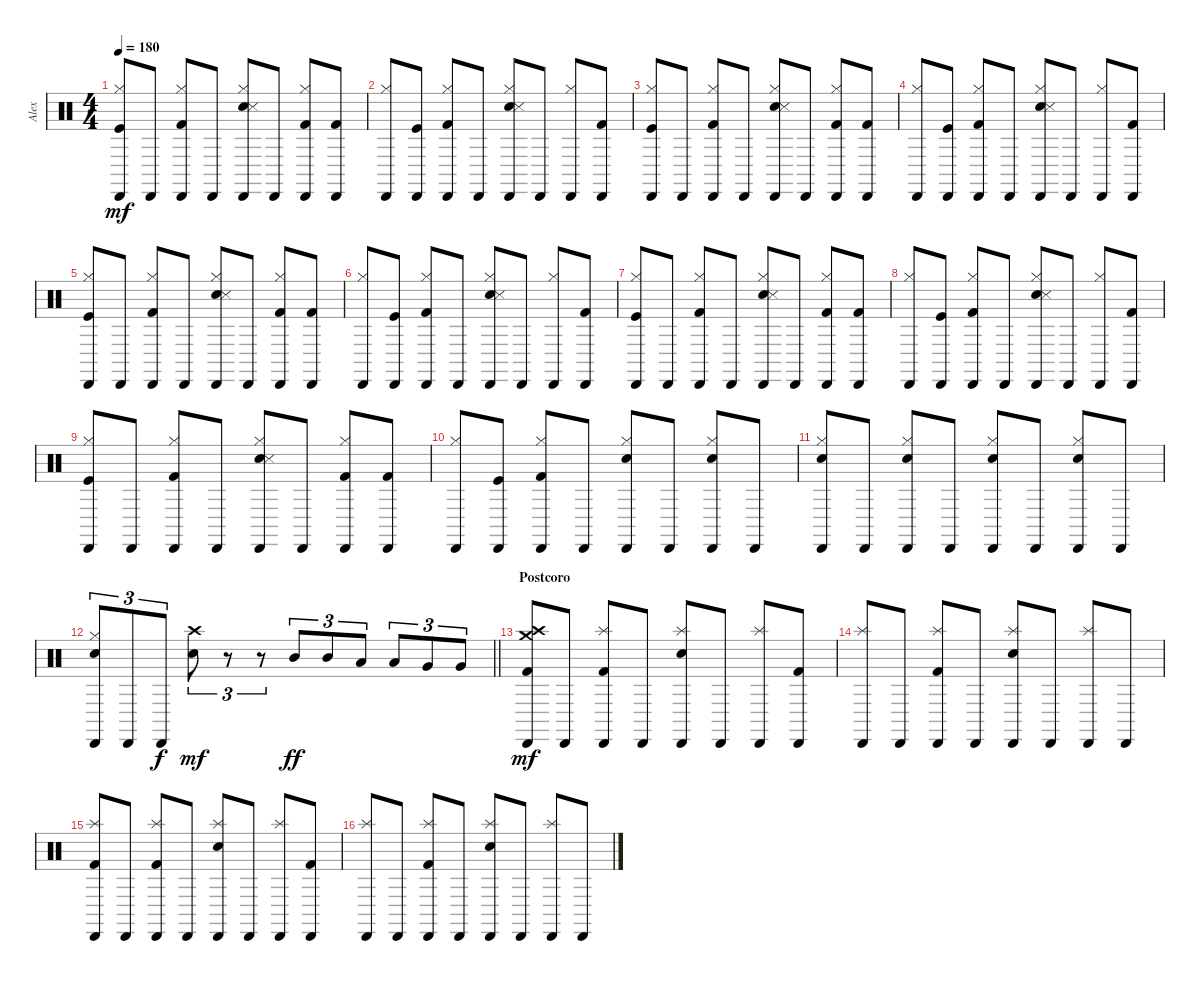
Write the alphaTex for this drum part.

\track ("Alex" "Alex") {instrument percussion}
\staff {score}
\articulation defaults
\ts (4 4)
\tempo 180
\clef neutral
\ks c
("Hi-Hat (closed)" "Kick (hit)" "Cabasa (hit)").8{dy mf} "Cabasa (hit)".8 ("Hi-Hat (closed)" "Kick (hit) 2" "Cabasa (hit)").8 "Cabasa (hit)".8 ("Hi-Hat (closed)" "Hand Clap (hit)" "Snare (side stick) 3" "Cabasa (hit)").8 "Cabasa (hit)".8 ("Hi-Hat (closed)" "Kick (hit) 2" "Cabasa (hit)").8 ("Kick (hit) 2" "Cabasa (hit)").8 |
("Hi-Hat (closed)" "Cabasa (hit)").8 ("Kick (hit)" "Cabasa (hit)").8 ("Hi-Hat (closed)" "Kick (hit) 2" "Cabasa (hit)").8 "Cabasa (hit)".8 ("Hi-Hat (closed)" "Hand Clap (hit)" "Snare (side stick) 3" "Cabasa (hit)").8 "Cabasa (hit)".8 ("Hi-Hat (closed)" "Cabasa (hit)").8 ("Kick (hit) 2" "Cabasa (hit)").8 |
("Hi-Hat (closed)" "Kick (hit)" "Cabasa (hit)").8 "Cabasa (hit)".8 ("Hi-Hat (closed)" "Kick (hit) 2" "Cabasa (hit)").8 "Cabasa (hit)".8 ("Hi-Hat (closed)" "Hand Clap (hit)" "Snare (side stick) 3" "Cabasa (hit)").8 "Cabasa (hit)".8 ("Hi-Hat (closed)" "Kick (hit) 2" "Cabasa (hit)").8 ("Kick (hit) 2" "Cabasa (hit)").8 |
("Hi-Hat (closed)" "Cabasa (hit)").8 ("Kick (hit)" "Cabasa (hit)").8 ("Hi-Hat (closed)" "Kick (hit) 2" "Cabasa (hit)").8 "Cabasa (hit)".8 ("Hi-Hat (closed)" "Hand Clap (hit)" "Snare (side stick) 3" "Cabasa (hit)").8 "Cabasa (hit)".8 ("Hi-Hat (closed)" "Cabasa (hit)").8 ("Kick (hit) 2" "Cabasa (hit)").8 |
("Hi-Hat (closed)" "Kick (hit)" "Cabasa (hit)").8 "Cabasa (hit)".8 ("Hi-Hat (closed)" "Kick (hit) 2" "Cabasa (hit)").8 "Cabasa (hit)".8 ("Hi-Hat (closed)" "Hand Clap (hit)" "Snare (side stick) 3" "Cabasa (hit)").8 "Cabasa (hit)".8 ("Hi-Hat (closed)" "Kick (hit) 2" "Cabasa (hit)").8 ("Kick (hit) 2" "Cabasa (hit)").8 |
("Hi-Hat (closed)" "Cabasa (hit)").8 ("Kick (hit)" "Cabasa (hit)").8 ("Hi-Hat (closed)" "Kick (hit) 2" "Cabasa (hit)").8 "Cabasa (hit)".8 ("Hi-Hat (closed)" "Hand Clap (hit)" "Snare (side stick) 3" "Cabasa (hit)").8 "Cabasa (hit)".8 ("Hi-Hat (closed)" "Cabasa (hit)").8 ("Kick (hit) 2" "Cabasa (hit)").8 |
("Hi-Hat (closed)" "Kick (hit)" "Cabasa (hit)").8 "Cabasa (hit)".8 ("Hi-Hat (closed)" "Kick (hit) 2" "Cabasa (hit)").8 "Cabasa (hit)".8 ("Hi-Hat (closed)" "Hand Clap (hit)" "Snare (side stick) 3" "Cabasa (hit)").8 "Cabasa (hit)".8 ("Hi-Hat (closed)" "Kick (hit) 2" "Cabasa (hit)").8 ("Kick (hit) 2" "Cabasa (hit)").8 |
("Hi-Hat (closed)" "Cabasa (hit)").8 ("Kick (hit)" "Cabasa (hit)").8 ("Hi-Hat (closed)" "Kick (hit) 2" "Cabasa (hit)").8 "Cabasa (hit)".8 ("Hi-Hat (closed)" "Hand Clap (hit)" "Snare (side stick) 3" "Cabasa (hit)").8 "Cabasa (hit)".8 ("Hi-Hat (closed)" "Cabasa (hit)").8 ("Kick (hit) 2" "Cabasa (hit)").8 |
("Hi-Hat (closed)" "Kick (hit)" "Cabasa (hit)").8 "Cabasa (hit)".8 ("Hi-Hat (closed)" "Kick (hit) 2" "Cabasa (hit)").8 "Cabasa (hit)".8 ("Hi-Hat (closed)" "Hand Clap (hit)" "Snare (side stick) 3" "Cabasa (hit)").8 "Cabasa (hit)".8 ("Hi-Hat (closed)" "Kick (hit) 2" "Cabasa (hit)").8 ("Kick (hit) 2" "Cabasa (hit)").8 |
("Hi-Hat (closed)" "Cabasa (hit)").8 ("Kick (hit)" "Cabasa (hit)").8 ("Hi-Hat (closed)" "Kick (hit) 2" "Cabasa (hit)").8 "Cabasa (hit)".8 ("Hi-Hat (closed)" "Snare (hit) 2" "Cabasa (hit)").8 "Cabasa (hit)".8 ("Hi-Hat (closed)" "Snare (hit) 2" "Cabasa (hit)").8 "Cabasa (hit)".8 |
("Hi-Hat (closed)" "Snare (hit) 2" "Cabasa (hit)").8 "Cabasa (hit)".8 ("Hi-Hat (closed)" "Snare (hit) 2" "Cabasa (hit)").8 "Cabasa (hit)".8 ("Hi-Hat (closed)" "Snare (hit) 2" "Cabasa (hit)").8 "Cabasa (hit)".8 ("Hi-Hat (closed)" "Snare (hit) 2" "Cabasa (hit)").8 "Cabasa (hit)".8 |
\barLineRight lightlight
("Hi-Hat (closed)" "Snare (hit) 2" "Cabasa (hit)").8{tu (3 2)} "Cabasa (hit)".8{tu (3 2)} "Cabasa (hit)".8{tu (3 2) dy f} ("Snare (hit) 2" "Crash high (hit)").8{tu (3 2) dy mf} r.8{tu (3 2)} r.8{tu (3 2)} "Mid Tom (hit)".8{tu (3 2) dy ff} "Mid Tom (hit)".8{tu (3 2)} "Low Tom (hit)".8{tu (3 2)} "Low Tom (hit)".8{tu (3 2)} "Very Low Tom (hit)".8{tu (3 2)} "Very Low Tom (hit)".8{tu (3 2)} |
\section ("" "Postcoro")
("Crash medium (hit)" "Crash high (hit)" "Kick (hit) 2" "Cabasa (hit)").8{dy mf} "Cabasa (hit)".8 ("Splash (hit)" "Kick (hit) 2" "Cabasa (hit)").8 "Cabasa (hit)".8 ("Splash (hit)" "Snare (hit) 2" "Cabasa (hit)").8 "Cabasa (hit)".8 ("Splash (hit)" "Cabasa (hit)").8 ("Kick (hit) 2" "Cabasa (hit)").8 |
("Splash (hit)" "Cabasa (hit)").8 "Cabasa (hit)".8 ("Splash (hit)" "Kick (hit) 2" "Cabasa (hit)").8 "Cabasa (hit)".8 ("Splash (hit)" "Snare (hit) 2" "Cabasa (hit)").8 "Cabasa (hit)".8 ("Splash (hit)" "Cabasa (hit)").8 "Cabasa (hit)".8 |
("Splash (hit)" "Kick (hit) 2" "Cabasa (hit)").8 "Cabasa (hit)".8 ("Splash (hit)" "Kick (hit) 2" "Cabasa (hit)").8 "Cabasa (hit)".8 ("Splash (hit)" "Snare (hit) 2" "Cabasa (hit)").8 "Cabasa (hit)".8 ("Splash (hit)" "Cabasa (hit)").8 ("Kick (hit) 2" "Cabasa (hit)").8 |
("Splash (hit)" "Cabasa (hit)").8 "Cabasa (hit)".8 ("Splash (hit)" "Kick (hit) 2" "Cabasa (hit)").8 "Cabasa (hit)".8 ("Splash (hit)" "Snare (hit) 2" "Cabasa (hit)").8 "Cabasa (hit)".8 ("Splash (hit)" "Cabasa (hit)").8 "Cabasa (hit)".8
